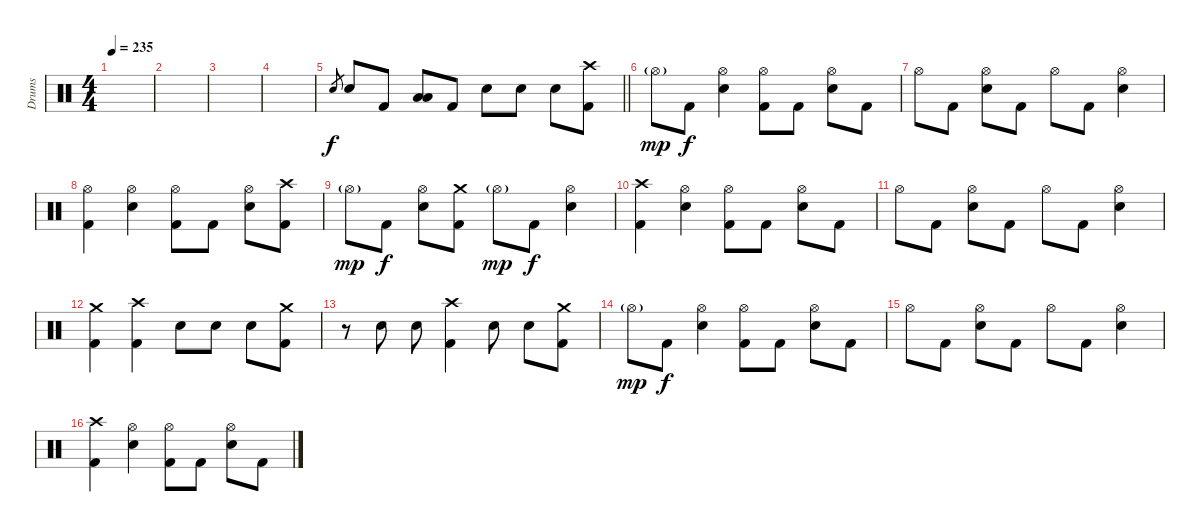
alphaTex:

\track ("Drums" "Drums") {instrument percussion}
\staff {score}
\articulation defaults
\ts (4 4)
\tempo 235
\clef neutral
\ks c
|
|
|
|
\barLineRight lightlight "Electric Snare (hit)".8{gr} "Electric Snare (hit)".8 "Kick (hit) 2".8
("Low Tom (hit)" "Low Floor Tom (hit)").8 "Kick (hit) 2".8 "Electric Snare (hit)".8 "Electric Snare (hit)".8 "Electric Snare (hit)".8 ("Crash high (hit)" "Kick (hit) 2").8 |
\section ("" "")
"Hi-Hat (open)"{g}.8{dy mp} "Kick (hit) 2".8{dy f} ("Hi-Hat (open)" "Electric Snare (hit)").4 ("Hi-Hat (open)" "Kick (hit) 2").8 "Kick (hit) 2".8 ("Hi-Hat (open)" "Electric Snare (hit)").8 "Kick (hit) 2".8 |
"Hi-Hat (open)".8 "Kick (hit) 2".8 ("Hi-Hat (open)" "Electric Snare (hit)").8 "Kick (hit) 2".8 "Hi-Hat (open)".8 "Kick (hit) 2".8 ("Hi-Hat (open)" "Electric Snare (hit)").4 |
("Hi-Hat (open)" "Kick (hit) 2").4 ("Hi-Hat (open)" "Electric Snare (hit)").4 ("Hi-Hat (open)" "Kick (hit) 2").8 "Kick (hit) 2".8 ("Hi-Hat (open)" "Electric Snare (hit)").8 ("Crash high (hit)" "Kick (hit) 2").8 |
"Hi-Hat (open)"{g}.8{dy mp} "Kick (hit) 2".8{dy f} ("Hi-Hat (open)" "Electric Snare (hit)").8 ("Crash medium (hit)" "Kick (hit) 2").8 "Hi-Hat (open)"{g}.8{dy mp} "Kick (hit) 2".8{dy f} ("Hi-Hat (open)" "Electric Snare (hit)").4 |
("Crash high (hit)" "Kick (hit) 2").4 ("Hi-Hat (open)" "Electric Snare (hit)").4 ("Hi-Hat (open)" "Kick (hit) 2").8 "Kick (hit) 2".8 ("Hi-Hat (open)" "Electric Snare (hit)").8 "Kick (hit) 2".8 |
"Hi-Hat (open)".8 "Kick (hit) 2".8 ("Hi-Hat (open)" "Electric Snare (hit)").8 "Kick (hit) 2".8 "Hi-Hat (open)".8 "Kick (hit) 2".8 ("Hi-Hat (open)" "Electric Snare (hit)").4 |
("Crash medium (hit)" "Kick (hit) 2").4 ("Crash high (hit)" "Kick (hit) 2").4 "Electric Snare (hit)".8 "Electric Snare (hit)".8 "Electric Snare (hit)".8 ("Crash medium (hit)" "Kick (hit) 2").8 |
r.8 "Electric Snare (hit)".8 "Electric Snare (hit)".8 ("Crash high (hit)" "Kick (hit) 2").4 "Electric Snare (hit)".8 "Electric Snare (hit)".8 ("Crash medium (hit)" "Kick (hit) 2").8 |
"Hi-Hat (open)"{g}.8{dy mp} "Kick (hit) 2".8{dy f} ("Hi-Hat (open)" "Electric Snare (hit)").4 ("Hi-Hat (open)" "Kick (hit) 2").8 "Kick (hit) 2".8 ("Hi-Hat (open)" "Electric Snare (hit)").8 "Kick (hit) 2".8 |
"Hi-Hat (open)".8 "Kick (hit) 2".8 ("Hi-Hat (open)" "Electric Snare (hit)").8 "Kick (hit) 2".8 "Hi-Hat (open)".8 "Kick (hit) 2".8 ("Hi-Hat (open)" "Electric Snare (hit)").4 |
("Crash high (hit)" "Kick (hit) 2").4 ("Hi-Hat (open)" "Electric Snare (hit)").4 ("Hi-Hat (open)" "Kick (hit) 2").8 "Kick (hit) 2".8 ("Hi-Hat (open)" "Electric Snare (hit)").8 "Kick (hit) 2".8
